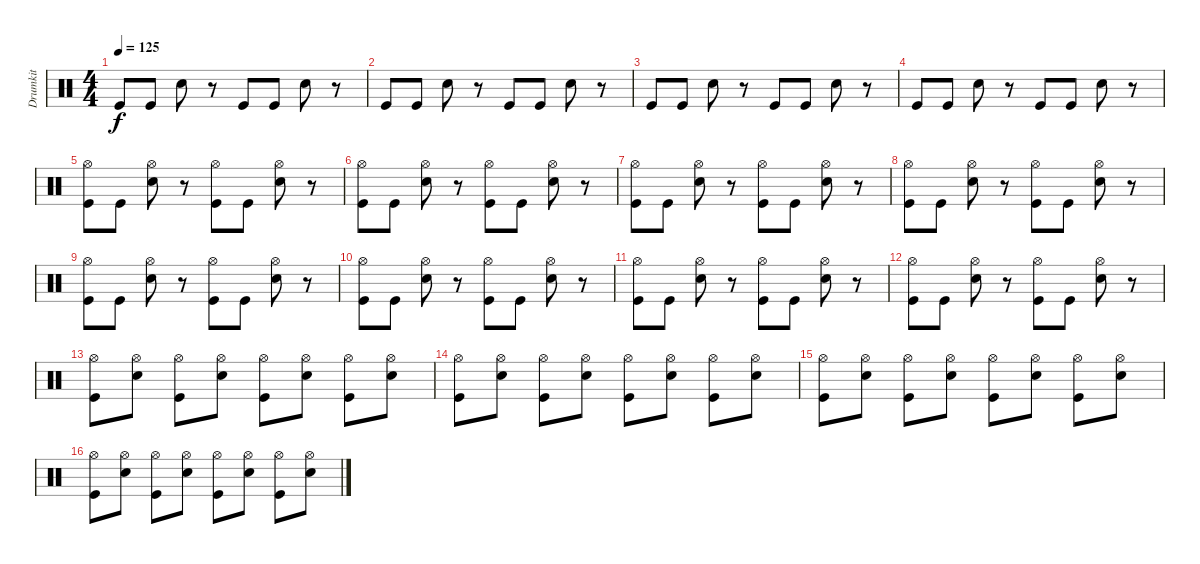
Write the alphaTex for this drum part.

\track ("Drumkit" "Drumkit") {instrument percussion}
\staff {score}
\articulation defaults
\ts (4 4)
\tempo 125
\clef neutral
\ks c "Kick (hit)".8{dy f} "Kick (hit)".8 "Snare (hit) 2".8
r.8 "Kick (hit)".8 "Kick (hit)".8 "Snare (hit) 2".8 r.8 |
"Kick (hit)".8 "Kick (hit)".8 "Snare (hit) 2".8 r.8 "Kick (hit)".8 "Kick (hit)".8 "Snare (hit) 2".8 r.8 |
"Kick (hit)".8 "Kick (hit)".8 "Snare (hit) 2".8 r.8 "Kick (hit)".8 "Kick (hit)".8 "Snare (hit) 2".8 r.8 |
"Kick (hit)".8 "Kick (hit)".8 "Snare (hit) 2".8 r.8 "Kick (hit)".8 "Kick (hit)".8 "Snare (hit) 2".8 r.8 |
("Hi-Hat (open)" "Kick (hit)").8 "Kick (hit)".8 ("Hi-Hat (open)" "Snare (hit) 2").8 r.8 ("Hi-Hat (open)" "Kick (hit)").8 "Kick (hit)".8 ("Hi-Hat (open)" "Snare (hit) 2").8 r.8 |
("Hi-Hat (open)" "Kick (hit)").8 "Kick (hit)".8 ("Hi-Hat (open)" "Snare (hit) 2").8 r.8 ("Hi-Hat (open)" "Kick (hit)").8 "Kick (hit)".8 ("Hi-Hat (open)" "Snare (hit) 2").8 r.8 |
("Hi-Hat (open)" "Kick (hit)").8 "Kick (hit)".8 ("Hi-Hat (open)" "Snare (hit) 2").8 r.8 ("Hi-Hat (open)" "Kick (hit)").8 "Kick (hit)".8 ("Hi-Hat (open)" "Snare (hit) 2").8 r.8 |
("Hi-Hat (open)" "Kick (hit)").8 "Kick (hit)".8 ("Hi-Hat (open)" "Snare (hit) 2").8 r.8 ("Hi-Hat (open)" "Kick (hit)").8 "Kick (hit)".8 ("Hi-Hat (open)" "Snare (hit) 2").8 r.8 |
("Hi-Hat (open)" "Kick (hit)").8 "Kick (hit)".8 ("Hi-Hat (open)" "Snare (hit) 2").8 r.8 ("Hi-Hat (open)" "Kick (hit)").8 "Kick (hit)".8 ("Hi-Hat (open)" "Snare (hit) 2").8 r.8 |
("Hi-Hat (open)" "Kick (hit)").8 "Kick (hit)".8 ("Hi-Hat (open)" "Snare (hit) 2").8 r.8 ("Hi-Hat (open)" "Kick (hit)").8 "Kick (hit)".8 ("Hi-Hat (open)" "Snare (hit) 2").8 r.8 |
("Hi-Hat (open)" "Kick (hit)").8 "Kick (hit)".8 ("Hi-Hat (open)" "Snare (hit) 2").8 r.8 ("Hi-Hat (open)" "Kick (hit)").8 "Kick (hit)".8 ("Hi-Hat (open)" "Snare (hit) 2").8 r.8 |
("Hi-Hat (open)" "Kick (hit)").8 "Kick (hit)".8 ("Hi-Hat (open)" "Snare (hit) 2").8 r.8 ("Hi-Hat (open)" "Kick (hit)").8 "Kick (hit)".8 ("Hi-Hat (open)" "Snare (hit) 2").8 r.8 |
("Hi-Hat (open)" "Kick (hit)").8 ("Hi-Hat (open)" "Snare (hit) 2").8 ("Hi-Hat (open)" "Kick (hit)").8 ("Hi-Hat (open)" "Snare (hit) 2").8 ("Hi-Hat (open)" "Kick (hit)").8 ("Hi-Hat (open)" "Snare (hit) 2").8 ("Hi-Hat (open)" "Kick (hit)").8 ("Hi-Hat (open)" "Snare (hit) 2").8 |
("Hi-Hat (open)" "Kick (hit)").8 ("Hi-Hat (open)" "Snare (hit) 2").8 ("Hi-Hat (open)" "Kick (hit)").8 ("Hi-Hat (open)" "Snare (hit) 2").8 ("Hi-Hat (open)" "Kick (hit)").8 ("Hi-Hat (open)" "Snare (hit) 2").8 ("Hi-Hat (open)" "Kick (hit)").8 ("Hi-Hat (open)" "Snare (hit) 2").8 |
("Hi-Hat (open)" "Kick (hit)").8 ("Hi-Hat (open)" "Snare (hit) 2").8 ("Hi-Hat (open)" "Kick (hit)").8 ("Hi-Hat (open)" "Snare (hit) 2").8 ("Hi-Hat (open)" "Kick (hit)").8 ("Hi-Hat (open)" "Snare (hit) 2").8 ("Hi-Hat (open)" "Kick (hit)").8 ("Hi-Hat (open)" "Snare (hit) 2").8 |
("Hi-Hat (open)" "Kick (hit)").8 ("Hi-Hat (open)" "Snare (hit) 2").8 ("Hi-Hat (open)" "Kick (hit)").8 ("Hi-Hat (open)" "Snare (hit) 2").8 ("Hi-Hat (open)" "Kick (hit)").8 ("Hi-Hat (open)" "Snare (hit) 2").8 ("Hi-Hat (open)" "Kick (hit)").8 ("Hi-Hat (open)" "Snare (hit) 2").8
